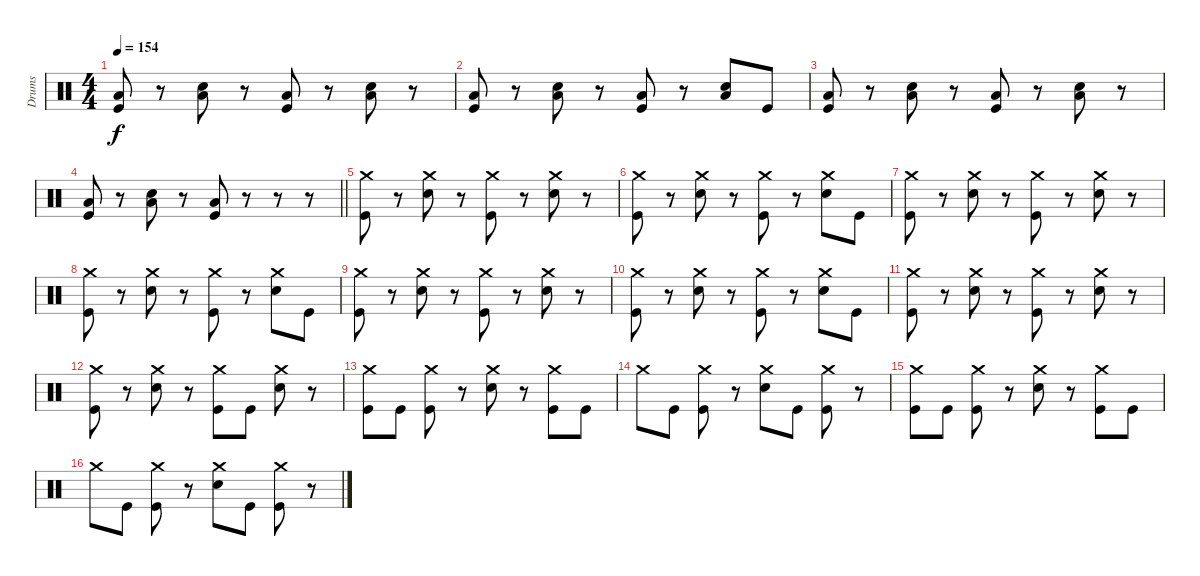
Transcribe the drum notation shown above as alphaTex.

\track ("Drums" "Drums") {instrument percussion}
\staff {score}
\articulation defaults
\ts (4 4)
\tempo 154
\clef neutral
\ks c
("Low Tom (hit)" "Kick (hit)").8{dy f} r.8 ("Low Tom (hit)" "Electric Snare (hit)").8 r.8 ("Low Tom (hit)" "Kick (hit)").8 r.8 ("Low Tom (hit)" "Electric Snare (hit)").8 r.8 |
("Low Tom (hit)" "Kick (hit)").8 r.8 ("Low Tom (hit)" "Electric Snare (hit)").8 r.8 ("Low Tom (hit)" "Kick (hit)").8 r.8 ("Low Tom (hit)" "Electric Snare (hit)").8 "Kick (hit)".8 |
("Low Tom (hit)" "Kick (hit)").8 r.8 ("Low Tom (hit)" "Electric Snare (hit)").8 r.8 ("Low Tom (hit)" "Kick (hit)").8 r.8 ("Low Tom (hit)" "Electric Snare (hit)").8 r.8 |
\barLineRight lightlight
("Low Tom (hit)" "Kick (hit)").8 r.8 ("Low Tom (hit)" "Electric Snare (hit)").8 r.8 ("Low Tom (hit)" "Kick (hit)").8 r.8 r.8 r.8 |
("Crash medium (hit)" "Kick (hit)").8 r.8 ("Crash medium (hit)" "Electric Snare (hit)").8 r.8 ("Crash medium (hit)" "Kick (hit)").8 r.8 ("Crash medium (hit)" "Electric Snare (hit)").8 r.8 |
("Crash medium (hit)" "Kick (hit)").8 r.8 ("Crash medium (hit)" "Electric Snare (hit)").8 r.8 ("Crash medium (hit)" "Kick (hit)").8 r.8 ("Crash medium (hit)" "Electric Snare (hit)").8 "Kick (hit)".8 |
("Crash medium (hit)" "Kick (hit)").8 r.8 ("Crash medium (hit)" "Electric Snare (hit)").8 r.8 ("Crash medium (hit)" "Kick (hit)").8 r.8 ("Crash medium (hit)" "Electric Snare (hit)").8 r.8 |
("Crash medium (hit)" "Kick (hit)").8 r.8 ("Crash medium (hit)" "Electric Snare (hit)").8 r.8 ("Crash medium (hit)" "Kick (hit)").8 r.8 ("Crash medium (hit)" "Electric Snare (hit)").8 "Kick (hit)".8 |
("Crash medium (hit)" "Kick (hit)").8 r.8 ("Crash medium (hit)" "Electric Snare (hit)").8 r.8 ("Crash medium (hit)" "Kick (hit)").8 r.8 ("Crash medium (hit)" "Electric Snare (hit)").8 r.8 |
("Crash medium (hit)" "Kick (hit)").8 r.8 ("Crash medium (hit)" "Electric Snare (hit)").8 r.8 ("Crash medium (hit)" "Kick (hit)").8 r.8 ("Crash medium (hit)" "Electric Snare (hit)").8 "Kick (hit)".8 |
("Crash medium (hit)" "Kick (hit)").8 r.8 ("Crash medium (hit)" "Electric Snare (hit)").8 r.8 ("Crash medium (hit)" "Kick (hit)").8 r.8 ("Crash medium (hit)" "Electric Snare (hit)").8 r.8 |
("Crash medium (hit)" "Kick (hit)").8 r.8 ("Crash medium (hit)" "Electric Snare (hit)").8 r.8 ("Crash medium (hit)" "Kick (hit)").8 "Kick (hit)".8 ("Crash medium (hit)" "Electric Snare (hit)").8 r.8 |
("Crash medium (hit)" "Kick (hit)").8 "Kick (hit)".8 ("Crash medium (hit)" "Kick (hit)").8 r.8 ("Crash medium (hit)" "Electric Snare (hit)").8 r.8 ("Crash medium (hit)" "Kick (hit)").8 "Kick (hit)".8 |
"Crash medium (hit)".8 "Kick (hit)".8 ("Crash medium (hit)" "Kick (hit)").8 r.8 ("Crash medium (hit)" "Electric Snare (hit)").8 "Kick (hit)".8 ("Crash medium (hit)" "Kick (hit)").8 r.8 |
("Crash medium (hit)" "Kick (hit)").8 "Kick (hit)".8 ("Crash medium (hit)" "Kick (hit)").8 r.8 ("Crash medium (hit)" "Electric Snare (hit)").8 r.8 ("Crash medium (hit)" "Kick (hit)").8 "Kick (hit)".8 |
"Crash medium (hit)".8 "Kick (hit)".8 ("Crash medium (hit)" "Kick (hit)").8 r.8 ("Crash medium (hit)" "Electric Snare (hit)").8 "Kick (hit)".8 ("Crash medium (hit)" "Kick (hit)").8 r.8
